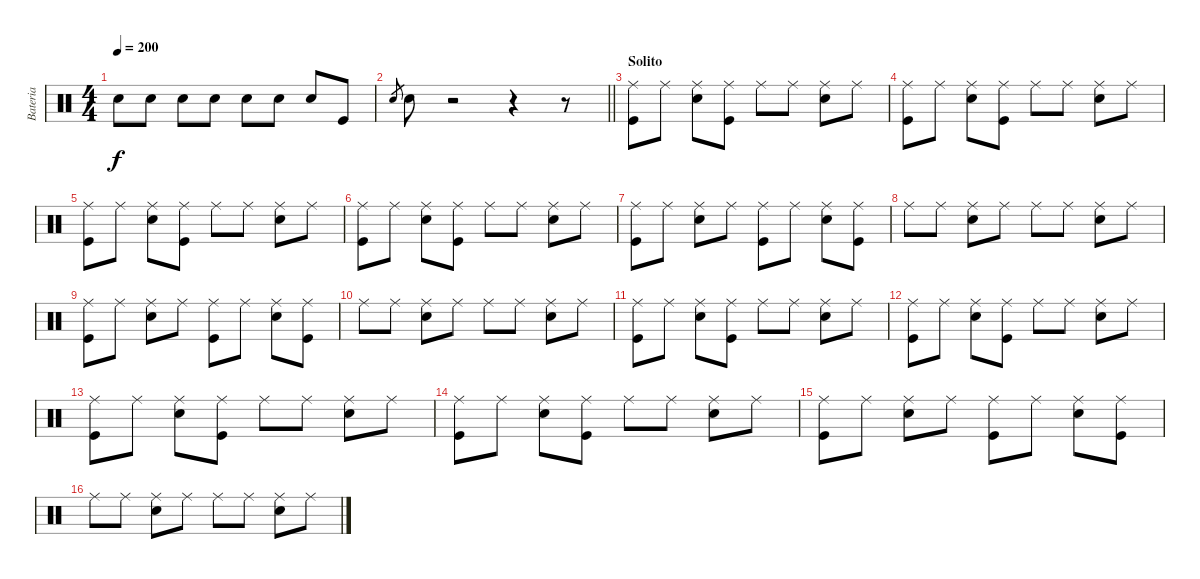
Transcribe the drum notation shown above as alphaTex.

\track ("Bateria" "Bateria") {instrument percussion}
\staff {score}
\articulation defaults
\ts (4 4)
\tempo 200
\clef neutral
\ks c "Snare (hit) 2".8{dy f} "Snare (hit) 2".8 "Snare (hit) 2".8 "Snare (hit) 2".8 "Snare (hit) 2".8 "Snare (hit) 2".8 "Snare (hit) 2".8 "Kick (hit)".8
|
\barLineRight lightlight "Snare (hit) 2".8{gr} "Snare (hit) 2".8
r.2 r.4 r.8 |
\section ("" "Solito")
("Ride (middle)" "Kick (hit)").8 "Ride (middle)".8 ("Ride (middle)" "Snare (hit) 2").8 ("Ride (middle)" "Kick (hit)").8 "Ride (middle)".8 "Ride (middle)".8 ("Ride (middle)" "Snare (hit) 2").8 "Ride (middle)".8 |
("Ride (middle)" "Kick (hit)").8 "Ride (middle)".8 ("Ride (middle)" "Snare (hit) 2").8 ("Ride (middle)" "Kick (hit)").8 "Ride (middle)".8 "Ride (middle)".8 ("Ride (middle)" "Snare (hit) 2").8 "Ride (middle)".8 |
("Ride (middle)" "Kick (hit)").8 "Ride (middle)".8 ("Ride (middle)" "Snare (hit) 2").8 ("Ride (middle)" "Kick (hit)").8 "Ride (middle)".8 "Ride (middle)".8 ("Ride (middle)" "Snare (hit) 2").8 "Ride (middle)".8 |
("Ride (middle)" "Kick (hit)").8 "Ride (middle)".8 ("Ride (middle)" "Snare (hit) 2").8 ("Ride (middle)" "Kick (hit)").8 "Ride (middle)".8 "Ride (middle)".8 ("Ride (middle)" "Snare (hit) 2").8 "Ride (middle)".8 |
("Ride (middle)" "Kick (hit)").8 "Ride (middle)".8 ("Ride (middle)" "Snare (hit) 2").8 "Ride (middle)".8 ("Ride (middle)" "Kick (hit)").8 "Ride (middle)".8 ("Ride (middle)" "Snare (hit) 2").8 ("Ride (middle)" "Kick (hit)").8 |
"Ride (middle)".8 "Ride (middle)".8 ("Ride (middle)" "Snare (hit) 2").8 "Ride (middle)".8 "Ride (middle)".8 "Ride (middle)".8 ("Ride (middle)" "Snare (hit) 2").8 "Ride (middle)".8 |
("Ride (middle)" "Kick (hit)").8 "Ride (middle)".8 ("Ride (middle)" "Snare (hit) 2").8 "Ride (middle)".8 ("Ride (middle)" "Kick (hit)").8 "Ride (middle)".8 ("Ride (middle)" "Snare (hit) 2").8 ("Ride (middle)" "Kick (hit)").8 |
"Ride (middle)".8 "Ride (middle)".8 ("Ride (middle)" "Snare (hit) 2").8 "Ride (middle)".8 "Ride (middle)".8 "Ride (middle)".8 ("Ride (middle)" "Snare (hit) 2").8 "Ride (middle)".8 |
("Ride (middle)" "Kick (hit)").8 "Ride (middle)".8 ("Ride (middle)" "Snare (hit) 2").8 ("Ride (middle)" "Kick (hit)").8 "Ride (middle)".8 "Ride (middle)".8 ("Ride (middle)" "Snare (hit) 2").8 "Ride (middle)".8 |
("Ride (middle)" "Kick (hit)").8 "Ride (middle)".8 ("Ride (middle)" "Snare (hit) 2").8 ("Ride (middle)" "Kick (hit)").8 "Ride (middle)".8 "Ride (middle)".8 ("Ride (middle)" "Snare (hit) 2").8 "Ride (middle)".8 |
("Ride (middle)" "Kick (hit)").8 "Ride (middle)".8 ("Ride (middle)" "Snare (hit) 2").8 ("Ride (middle)" "Kick (hit)").8 "Ride (middle)".8 "Ride (middle)".8 ("Ride (middle)" "Snare (hit) 2").8 "Ride (middle)".8 |
("Ride (middle)" "Kick (hit)").8 "Ride (middle)".8 ("Ride (middle)" "Snare (hit) 2").8 ("Ride (middle)" "Kick (hit)").8 "Ride (middle)".8 "Ride (middle)".8 ("Ride (middle)" "Snare (hit) 2").8 "Ride (middle)".8 |
("Ride (middle)" "Kick (hit)").8 "Ride (middle)".8 ("Ride (middle)" "Snare (hit) 2").8 "Ride (middle)".8 ("Ride (middle)" "Kick (hit)").8 "Ride (middle)".8 ("Ride (middle)" "Snare (hit) 2").8 ("Ride (middle)" "Kick (hit)").8 |
"Ride (middle)".8 "Ride (middle)".8 ("Ride (middle)" "Snare (hit) 2").8 "Ride (middle)".8 "Ride (middle)".8 "Ride (middle)".8 ("Ride (middle)" "Snare (hit) 2").8 "Ride (middle)".8
